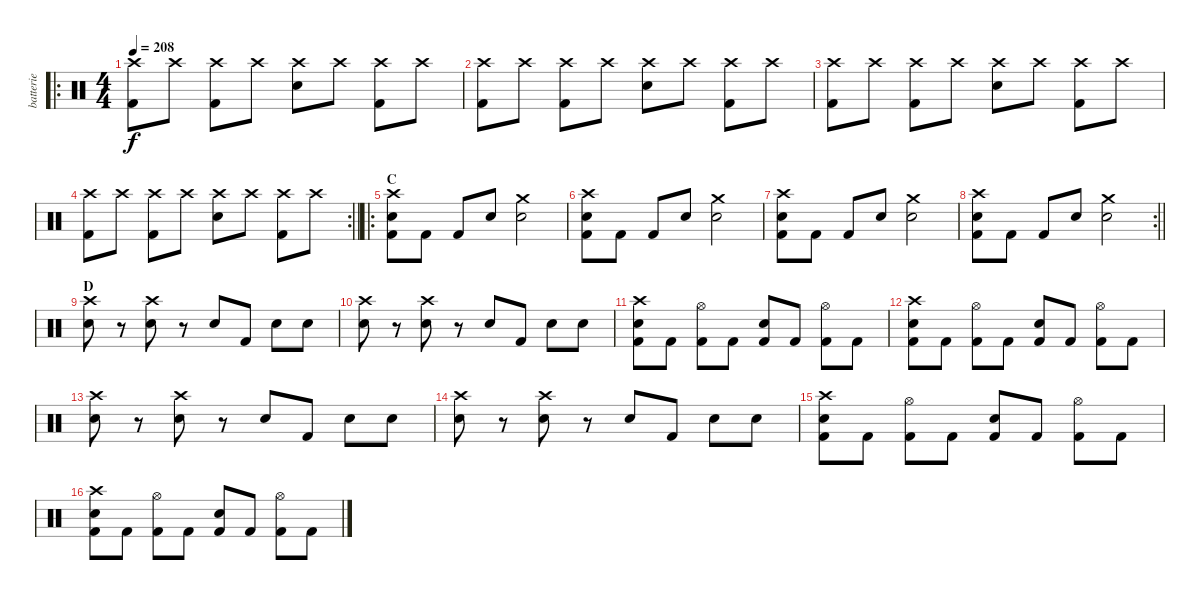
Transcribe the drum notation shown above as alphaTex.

\track ("batterie" "batterie") {instrument percussion}
\staff {score}
\articulation defaults
\ro
\ts (4 4)
\tempo 208
\clef neutral
\ks c
("Crash high (hit)" "Kick (hit) 2").8{dy f} "Crash high (hit)".8 ("Crash high (hit)" "Kick (hit) 2").8 "Crash high (hit)".8 ("Crash high (hit)" "Snare (hit) 2").8 "Crash high (hit)".8 ("Crash high (hit)" "Kick (hit) 2").8 "Crash high (hit)".8 |
("Crash high (hit)" "Kick (hit) 2").8 "Crash high (hit)".8 ("Crash high (hit)" "Kick (hit) 2").8 "Crash high (hit)".8 ("Crash high (hit)" "Snare (hit) 2").8 "Crash high (hit)".8 ("Crash high (hit)" "Kick (hit) 2").8 "Crash high (hit)".8 |
("Crash high (hit)" "Kick (hit) 2").8 "Crash high (hit)".8 ("Crash high (hit)" "Kick (hit) 2").8 "Crash high (hit)".8 ("Crash high (hit)" "Snare (hit) 2").8 "Crash high (hit)".8 ("Crash high (hit)" "Kick (hit) 2").8 "Crash high (hit)".8 |
\rc 2
\barLineRight lightlight
("Crash high (hit)" "Kick (hit) 2").8 "Crash high (hit)".8 ("Crash high (hit)" "Kick (hit) 2").8 "Crash high (hit)".8 ("Crash high (hit)" "Snare (hit) 2").8 "Crash high (hit)".8 ("Crash high (hit)" "Kick (hit) 2").8 "Crash high (hit)".8 |
\ro
\section ("" "C")
("Snare (hit) 2" "Crash high (hit)" "Kick (hit) 2").8 "Kick (hit) 2".8 "Kick (hit) 2".8 "Snare (hit)".8 ("Electric Snare (hit)" "Crash medium (hit)").2 |
("Snare (hit) 2" "Crash high (hit)" "Kick (hit) 2").8 "Kick (hit) 2".8 "Kick (hit) 2".8 "Snare (hit)".8 ("Electric Snare (hit)" "Crash medium (hit)").2 |
("Snare (hit) 2" "Crash high (hit)" "Kick (hit) 2").8 "Kick (hit) 2".8 "Kick (hit) 2".8 "Snare (hit)".8 ("Electric Snare (hit)" "Crash medium (hit)").2 |
\rc 2
\barLineRight lightlight
("Snare (hit) 2" "Crash high (hit)" "Kick (hit) 2").8 "Kick (hit) 2".8 "Kick (hit) 2".8 "Snare (hit)".8 ("Electric Snare (hit)" "Crash medium (hit)").2 |
\section ("" "D")
("Snare (hit) 2" "Crash high (hit)").8 r.8 ("Snare (hit) 2" "Crash high (hit)").8 r.8 "Electric Snare (hit)".8 "Kick (hit) 2".8 "Snare (hit)".8 "Snare (hit)".8 |
("Snare (hit) 2" "Crash high (hit)").8 r.8 ("Snare (hit) 2" "Crash high (hit)").8 r.8 "Electric Snare (hit)".8 "Kick (hit) 2".8 "Snare (hit)".8 "Snare (hit)".8 |
("Snare (hit) 2" "Crash high (hit)" "Kick (hit) 2").8 "Kick (hit) 2".8 ("Hi-Hat (open)" "Kick (hit) 2").8 "Kick (hit) 2".8 ("Snare (hit) 2" "Kick (hit) 2").8 "Kick (hit) 2".8 ("Hi-Hat (open)" "Kick (hit) 2").8 "Kick (hit) 2".8 |
("Snare (hit) 2" "Crash high (hit)" "Kick (hit) 2").8 "Kick (hit) 2".8 ("Hi-Hat (open)" "Kick (hit) 2").8 "Kick (hit) 2".8 ("Snare (hit) 2" "Kick (hit) 2").8 "Kick (hit) 2".8 ("Hi-Hat (open)" "Kick (hit) 2").8 "Kick (hit) 2".8 |
("Snare (hit) 2" "Crash high (hit)").8 r.8 ("Snare (hit) 2" "Crash high (hit)").8 r.8 "Electric Snare (hit)".8 "Kick (hit) 2".8 "Snare (hit)".8 "Snare (hit)".8 |
("Snare (hit) 2" "Crash high (hit)").8 r.8 ("Snare (hit) 2" "Crash high (hit)").8 r.8 "Electric Snare (hit)".8 "Kick (hit) 2".8 "Snare (hit)".8 "Snare (hit)".8 |
("Snare (hit) 2" "Crash high (hit)" "Kick (hit) 2").8 "Kick (hit) 2".8 ("Hi-Hat (open)" "Kick (hit) 2").8 "Kick (hit) 2".8 ("Snare (hit) 2" "Kick (hit) 2").8 "Kick (hit) 2".8 ("Hi-Hat (open)" "Kick (hit) 2").8 "Kick (hit) 2".8 |
("Snare (hit) 2" "Crash high (hit)" "Kick (hit) 2").8 "Kick (hit) 2".8 ("Hi-Hat (open)" "Kick (hit) 2").8 "Kick (hit) 2".8 ("Snare (hit) 2" "Kick (hit) 2").8 "Kick (hit) 2".8 ("Hi-Hat (open)" "Kick (hit) 2").8 "Kick (hit) 2".8
